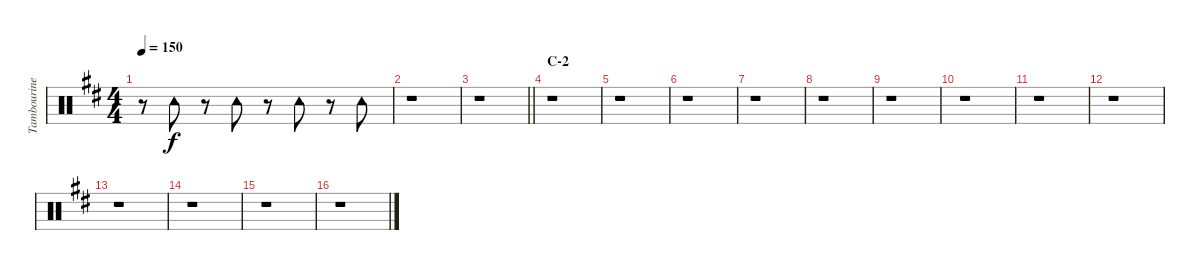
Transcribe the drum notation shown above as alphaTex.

\track ("Tambourine" "Tambourine") {instrument percussion}
\staff {score}
\articulation defaults
\ts (4 4)
\tempo 150
\clef neutral
\ks d
r.8{dy f} "Tambourine (hit)".8 r.8 "Tambourine (hit)".8 r.8 "Tambourine (hit)".8 r.8 "Tambourine (hit)".8 |
r.1 |
\barLineRight lightlight
r.1 |
\section ("" "C-2")
r.1 |
r.1 |
r.1 |
r.1 |
r.1 |
r.1 |
r.1 |
r.1 |
r.1 |
r.1 |
r.1 |
r.1 |
r.1
